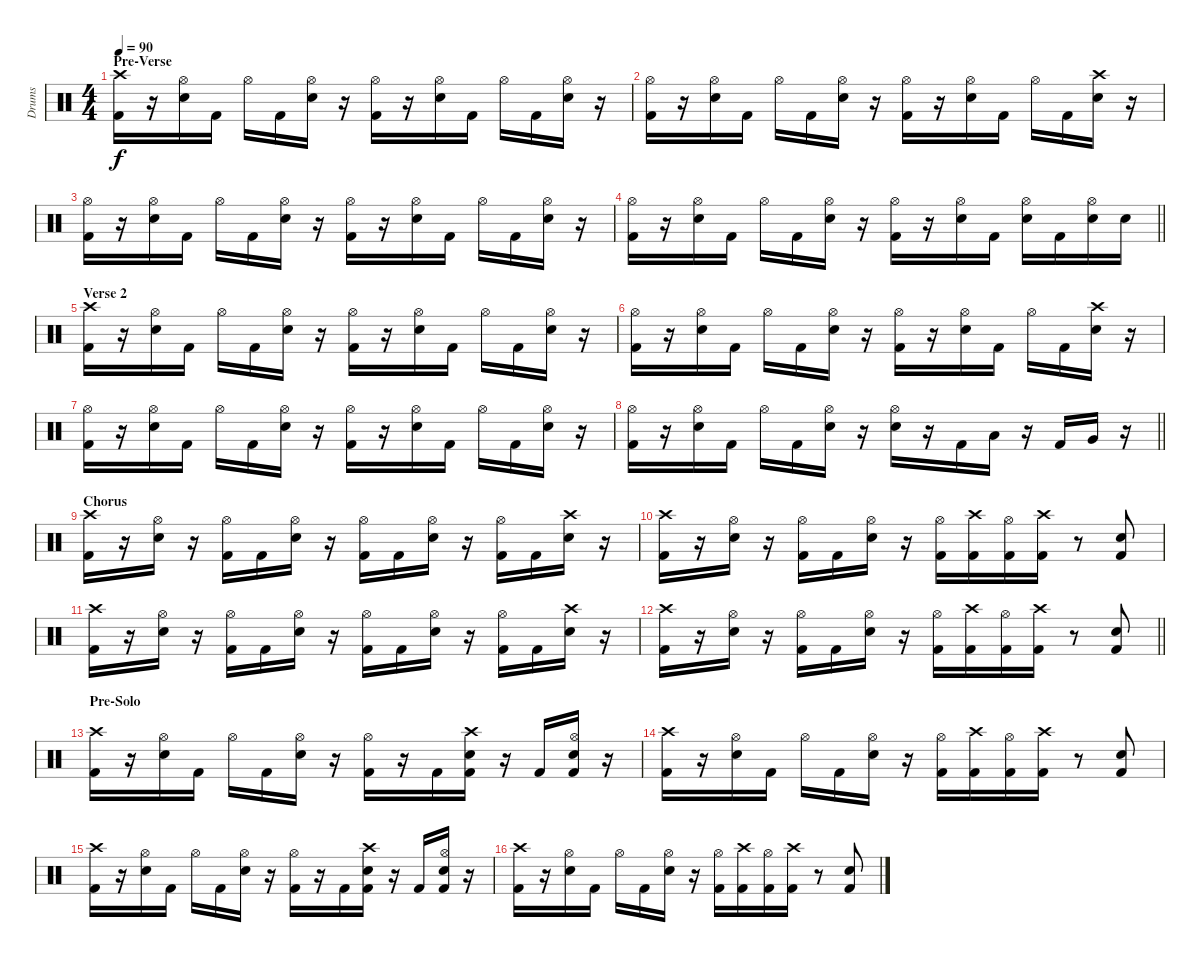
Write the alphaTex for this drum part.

\track ("Drums" "Drums") {instrument percussion}
\staff {score}
\articulation defaults
\ts (4 4)
\section ("" "Pre-Verse")
\tempo 90
\clef neutral
\ks c
("Crash high (hit)" "Kick (hit) 2").16{dy f} r.16 ("Hi-Hat (open)" "Snare (hit) 2").16 "Kick (hit) 2".16 "Hi-Hat (open)".16 "Kick (hit) 2".16 ("Hi-Hat (open)" "Snare (hit) 2").16 r.16 ("Hi-Hat (open)" "Kick (hit) 2").16 r.16 ("Hi-Hat (open)" "Snare (hit) 2").16 "Kick (hit) 2".16 "Hi-Hat (open)".16 "Kick (hit) 2".16 ("Hi-Hat (open)" "Snare (hit) 2").16 r.16 |
("Hi-Hat (open)" "Kick (hit) 2").16 r.16 ("Hi-Hat (open)" "Snare (hit) 2").16 "Kick (hit) 2".16 "Hi-Hat (open)".16 "Kick (hit) 2".16 ("Hi-Hat (open)" "Snare (hit) 2").16 r.16 ("Hi-Hat (open)" "Kick (hit) 2").16 r.16 ("Hi-Hat (open)" "Snare (hit) 2").16 "Kick (hit) 2".16 "Hi-Hat (open)".16 "Kick (hit) 2".16 ("Crash high (hit)" "Snare (hit) 2").16 r.16 |
("Hi-Hat (open)" "Kick (hit) 2").16 r.16 ("Hi-Hat (open)" "Snare (hit) 2").16 "Kick (hit) 2".16 "Hi-Hat (open)".16 "Kick (hit) 2".16 ("Hi-Hat (open)" "Snare (hit) 2").16 r.16 ("Hi-Hat (open)" "Kick (hit) 2").16 r.16 ("Hi-Hat (open)" "Snare (hit) 2").16 "Kick (hit) 2".16 "Hi-Hat (open)".16 "Kick (hit) 2".16 ("Hi-Hat (open)" "Snare (hit) 2").16 r.16 |
\barLineRight lightlight
("Hi-Hat (open)" "Kick (hit) 2").16 r.16 ("Hi-Hat (open)" "Snare (hit) 2").16 "Kick (hit) 2".16 "Hi-Hat (open)".16 "Kick (hit) 2".16 ("Hi-Hat (open)" "Snare (hit) 2").16 r.16 ("Hi-Hat (open)" "Kick (hit) 2").16 r.16 ("Hi-Hat (open)" "Snare (hit) 2").16 "Kick (hit) 2".16 ("Hi-Hat (open)" "Snare (hit) 2").16 "Kick (hit) 2".16 ("Hi-Hat (open)" "Snare (hit) 2").16 "Snare (hit) 2".16 |
\section ("" "Verse 2")
("Crash high (hit)" "Kick (hit) 2").16 r.16 ("Hi-Hat (open)" "Snare (hit) 2").16 "Kick (hit) 2".16 "Hi-Hat (open)".16 "Kick (hit) 2".16 ("Hi-Hat (open)" "Snare (hit) 2").16 r.16 ("Hi-Hat (open)" "Kick (hit) 2").16 r.16 ("Hi-Hat (open)" "Snare (hit) 2").16 "Kick (hit) 2".16 "Hi-Hat (open)".16 "Kick (hit) 2".16 ("Hi-Hat (open)" "Snare (hit) 2").16 r.16 |
("Hi-Hat (open)" "Kick (hit) 2").16 r.16 ("Hi-Hat (open)" "Snare (hit) 2").16 "Kick (hit) 2".16 "Hi-Hat (open)".16 "Kick (hit) 2".16 ("Hi-Hat (open)" "Snare (hit) 2").16 r.16 ("Hi-Hat (open)" "Kick (hit) 2").16 r.16 ("Hi-Hat (open)" "Snare (hit) 2").16 "Kick (hit) 2".16 "Hi-Hat (open)".16 "Kick (hit) 2".16 ("Crash high (hit)" "Snare (hit) 2").16 r.16 |
("Hi-Hat (open)" "Kick (hit) 2").16 r.16 ("Hi-Hat (open)" "Snare (hit) 2").16 "Kick (hit) 2".16 "Hi-Hat (open)".16 "Kick (hit) 2".16 ("Hi-Hat (open)" "Snare (hit) 2").16 r.16 ("Hi-Hat (open)" "Kick (hit) 2").16 r.16 ("Hi-Hat (open)" "Snare (hit) 2").16 "Kick (hit) 2".16 "Hi-Hat (open)".16 "Kick (hit) 2".16 ("Hi-Hat (open)" "Snare (hit) 2").16 r.16 |
\barLineRight lightlight
("Hi-Hat (open)" "Kick (hit) 2").16 r.16 ("Hi-Hat (open)" "Snare (hit) 2").16 "Kick (hit) 2".16 "Hi-Hat (open)".16 "Kick (hit) 2".16 ("Hi-Hat (open)" "Snare (hit) 2").16 r.16 ("Hi-Hat (open)" "Snare (hit) 2").16 r.16 "Kick (hit) 2".16 "Low Tom (hit)".16 r.16 "Kick (hit) 2".16 "Very Low Tom (hit)".16 r.16 |
\section ("" "Chorus")
("Crash high (hit)" "Kick (hit) 2").16 r.16 ("Hi-Hat (open)" "Snare (hit) 2").16 r.16 ("Hi-Hat (open)" "Kick (hit) 2").16 "Kick (hit) 2".16 ("Hi-Hat (open)" "Snare (hit) 2").16 r.16 ("Hi-Hat (open)" "Kick (hit) 2").16 "Kick (hit) 2".16 ("Hi-Hat (open)" "Snare (hit) 2").16 r.16 ("Hi-Hat (open)" "Kick (hit) 2").16 "Kick (hit) 2".16 ("Crash high (hit)" "Snare (hit) 2").16 r.16 |
("Crash high (hit)" "Kick (hit) 2").16 r.16 ("Hi-Hat (open)" "Snare (hit) 2").16 r.16 ("Hi-Hat (open)" "Kick (hit) 2").16 "Kick (hit) 2".16 ("Hi-Hat (open)" "Snare (hit) 2").16 r.16 ("Hi-Hat (open)" "Kick (hit) 2").16 ("Crash high (hit)" "Kick (hit) 2").16 ("Hi-Hat (open)" "Kick (hit) 2").16 ("Crash high (hit)" "Kick (hit) 2").16 r.8 ("Snare (hit) 2" "Kick (hit) 2").8 |
("Crash high (hit)" "Kick (hit) 2").16 r.16 ("Hi-Hat (open)" "Snare (hit) 2").16 r.16 ("Hi-Hat (open)" "Kick (hit) 2").16 "Kick (hit) 2".16 ("Hi-Hat (open)" "Snare (hit) 2").16 r.16 ("Hi-Hat (open)" "Kick (hit) 2").16 "Kick (hit) 2".16 ("Hi-Hat (open)" "Snare (hit) 2").16 r.16 ("Hi-Hat (open)" "Kick (hit) 2").16 "Kick (hit) 2".16 ("Crash high (hit)" "Snare (hit) 2").16 r.16 |
\barLineRight lightlight
("Crash high (hit)" "Kick (hit) 2").16 r.16 ("Hi-Hat (open)" "Snare (hit) 2").16 r.16 ("Hi-Hat (open)" "Kick (hit) 2").16 "Kick (hit) 2".16 ("Hi-Hat (open)" "Snare (hit) 2").16 r.16 ("Hi-Hat (open)" "Kick (hit) 2").16 ("Crash high (hit)" "Kick (hit) 2").16 ("Hi-Hat (open)" "Kick (hit) 2").16 ("Crash high (hit)" "Kick (hit) 2").16 r.8 ("Snare (hit) 2" "Kick (hit) 2").8 |
\section ("" "Pre-Solo")
("Crash high (hit)" "Kick (hit) 2").16 r.16 ("Hi-Hat (open)" "Snare (hit) 2").16 "Kick (hit) 2".16 "Hi-Hat (open)".16 "Kick (hit) 2".16 ("Hi-Hat (open)" "Snare (hit) 2").16 r.16 ("Hi-Hat (open)" "Kick (hit) 2").16 r.16 "Kick (hit) 2".16 ("Crash high (hit)" "Snare (hit) 2" "Kick (hit) 2").16 r.16 "Kick (hit) 2".16 ("Hi-Hat (open)" "Snare (hit) 2" "Kick (hit) 2").16 r.16 |
("Crash high (hit)" "Kick (hit) 2").16 r.16 ("Hi-Hat (open)" "Snare (hit) 2").16 "Kick (hit) 2".16 "Hi-Hat (open)".16 "Kick (hit) 2".16 ("Hi-Hat (open)" "Snare (hit) 2").16 r.16 ("Hi-Hat (open)" "Kick (hit) 2").16 ("Crash high (hit)" "Kick (hit) 2").16 ("Hi-Hat (open)" "Kick (hit) 2").16 ("Crash high (hit)" "Kick (hit) 2").16 r.8 ("Snare (hit) 2" "Kick (hit) 2").8 |
("Crash high (hit)" "Kick (hit) 2").16 r.16 ("Hi-Hat (open)" "Snare (hit) 2").16 "Kick (hit) 2".16 "Hi-Hat (open)".16 "Kick (hit) 2".16 ("Hi-Hat (open)" "Snare (hit) 2").16 r.16 ("Hi-Hat (open)" "Kick (hit) 2").16 r.16 "Kick (hit) 2".16 ("Crash high (hit)" "Snare (hit) 2" "Kick (hit) 2").16 r.16 "Kick (hit) 2".16 ("Hi-Hat (open)" "Snare (hit) 2" "Kick (hit) 2").16 r.16 |
("Crash high (hit)" "Kick (hit) 2").16 r.16 ("Hi-Hat (open)" "Snare (hit) 2").16 "Kick (hit) 2".16 "Hi-Hat (open)".16 "Kick (hit) 2".16 ("Hi-Hat (open)" "Snare (hit) 2").16 r.16 ("Hi-Hat (open)" "Kick (hit) 2").16 ("Crash high (hit)" "Kick (hit) 2").16 ("Hi-Hat (open)" "Kick (hit) 2").16 ("Crash high (hit)" "Kick (hit) 2").16 r.8 ("Snare (hit) 2" "Kick (hit) 2").8
